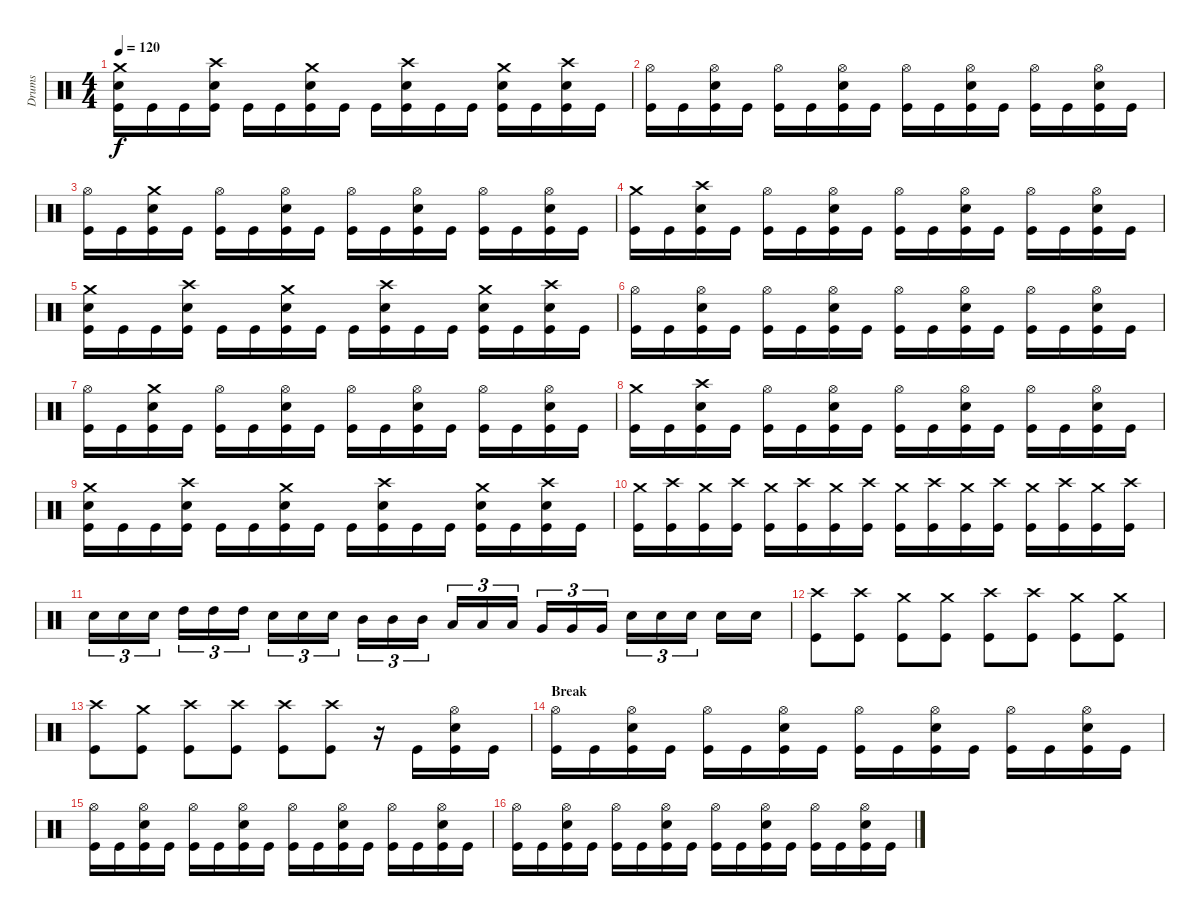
\track ("Drums" "Drums") {instrument percussion}
\staff {score}
\articulation defaults
\ts (4 4)
\tempo 120
\clef neutral
\ks c
("Crash medium (hit)" "Snare (hit) 2" "Kick (hit)").16{dy f} "Kick (hit)".16 "Kick (hit)".16 ("Crash high (hit)" "Snare (hit) 2" "Kick (hit)").16 "Kick (hit)".16 "Kick (hit)".16 ("Crash medium (hit)" "Snare (hit) 2" "Kick (hit)").16 "Kick (hit)".16 "Kick (hit)".16 ("Crash high (hit)" "Snare (hit) 2" "Kick (hit)").16 "Kick (hit)".16 "Kick (hit)".16 ("Crash medium (hit)" "Snare (hit) 2" "Kick (hit)").16 "Kick (hit)".16 ("Crash high (hit)" "Snare (hit) 2" "Kick (hit)").16 "Kick (hit)".16 |
("Hi-Hat (open)" "Kick (hit)").16 "Kick (hit)".16 ("Hi-Hat (open)" "Snare (hit) 2" "Kick (hit)").16 "Kick (hit)".16 ("Hi-Hat (open)" "Kick (hit)").16 "Kick (hit)".16 ("Hi-Hat (open)" "Snare (hit) 2" "Kick (hit)").16 "Kick (hit)".16 ("Hi-Hat (open)" "Kick (hit)").16 "Kick (hit)".16 ("Hi-Hat (open)" "Snare (hit) 2" "Kick (hit)").16 "Kick (hit)".16 ("Hi-Hat (open)" "Kick (hit)").16 "Kick (hit)".16 ("Hi-Hat (open)" "Snare (hit) 2" "Kick (hit)").16 "Kick (hit)".16 |
("Hi-Hat (open)" "Kick (hit)").16 "Kick (hit)".16 ("Crash medium (hit)" "Snare (hit) 2" "Kick (hit)").16 "Kick (hit)".16 ("Hi-Hat (open)" "Kick (hit)").16 "Kick (hit)".16 ("Hi-Hat (open)" "Snare (hit) 2" "Kick (hit)").16 "Kick (hit)".16 ("Hi-Hat (open)" "Kick (hit)").16 "Kick (hit)".16 ("Hi-Hat (open)" "Snare (hit) 2" "Kick (hit)").16 "Kick (hit)".16 ("Hi-Hat (open)" "Kick (hit)").16 "Kick (hit)".16 ("Hi-Hat (open)" "Snare (hit) 2" "Kick (hit)").16 "Kick (hit)".16 |
("Crash medium (hit)" "Kick (hit)").16 "Kick (hit)".16 ("Crash high (hit)" "Snare (hit) 2" "Kick (hit)").16 "Kick (hit)".16 ("Hi-Hat (open)" "Kick (hit)").16 "Kick (hit)".16 ("Hi-Hat (open)" "Snare (hit) 2" "Kick (hit)").16 "Kick (hit)".16 ("Hi-Hat (open)" "Kick (hit)").16 "Kick (hit)".16 ("Hi-Hat (open)" "Snare (hit) 2" "Kick (hit)").16 "Kick (hit)".16 ("Hi-Hat (open)" "Kick (hit)").16 "Kick (hit)".16 ("Hi-Hat (open)" "Snare (hit) 2" "Kick (hit)").16 "Kick (hit)".16 |
("Crash medium (hit)" "Snare (hit) 2" "Kick (hit)").16 "Kick (hit)".16 "Kick (hit)".16 ("Crash high (hit)" "Snare (hit) 2" "Kick (hit)").16 "Kick (hit)".16 "Kick (hit)".16 ("Crash medium (hit)" "Snare (hit) 2" "Kick (hit)").16 "Kick (hit)".16 "Kick (hit)".16 ("Crash high (hit)" "Snare (hit) 2" "Kick (hit)").16 "Kick (hit)".16 "Kick (hit)".16 ("Crash medium (hit)" "Snare (hit) 2" "Kick (hit)").16 "Kick (hit)".16 ("Crash high (hit)" "Snare (hit) 2" "Kick (hit)").16 "Kick (hit)".16 |
("Hi-Hat (open)" "Kick (hit)").16 "Kick (hit)".16 ("Hi-Hat (open)" "Snare (hit) 2" "Kick (hit)").16 "Kick (hit)".16 ("Hi-Hat (open)" "Kick (hit)").16 "Kick (hit)".16 ("Hi-Hat (open)" "Snare (hit) 2" "Kick (hit)").16 "Kick (hit)".16 ("Hi-Hat (open)" "Kick (hit)").16 "Kick (hit)".16 ("Hi-Hat (open)" "Snare (hit) 2" "Kick (hit)").16 "Kick (hit)".16 ("Hi-Hat (open)" "Kick (hit)").16 "Kick (hit)".16 ("Hi-Hat (open)" "Snare (hit) 2" "Kick (hit)").16 "Kick (hit)".16 |
("Hi-Hat (open)" "Kick (hit)").16 "Kick (hit)".16 ("Crash medium (hit)" "Snare (hit) 2" "Kick (hit)").16 "Kick (hit)".16 ("Hi-Hat (open)" "Kick (hit)").16 "Kick (hit)".16 ("Hi-Hat (open)" "Snare (hit) 2" "Kick (hit)").16 "Kick (hit)".16 ("Hi-Hat (open)" "Kick (hit)").16 "Kick (hit)".16 ("Hi-Hat (open)" "Snare (hit) 2" "Kick (hit)").16 "Kick (hit)".16 ("Hi-Hat (open)" "Kick (hit)").16 "Kick (hit)".16 ("Hi-Hat (open)" "Snare (hit) 2" "Kick (hit)").16 "Kick (hit)".16 |
("Crash medium (hit)" "Kick (hit)").16 "Kick (hit)".16 ("Crash high (hit)" "Snare (hit) 2" "Kick (hit)").16 "Kick (hit)".16 ("Hi-Hat (open)" "Kick (hit)").16 "Kick (hit)".16 ("Hi-Hat (open)" "Snare (hit) 2" "Kick (hit)").16 "Kick (hit)".16 ("Hi-Hat (open)" "Kick (hit)").16 "Kick (hit)".16 ("Hi-Hat (open)" "Snare (hit) 2" "Kick (hit)").16 "Kick (hit)".16 ("Hi-Hat (open)" "Kick (hit)").16 "Kick (hit)".16 ("Hi-Hat (open)" "Snare (hit) 2" "Kick (hit)").16 "Kick (hit)".16 |
("Crash medium (hit)" "Snare (hit) 2" "Kick (hit)").16 "Kick (hit)".16 "Kick (hit)".16 ("Crash high (hit)" "Snare (hit) 2" "Kick (hit)").16 "Kick (hit)".16 "Kick (hit)".16 ("Crash medium (hit)" "Snare (hit) 2" "Kick (hit)").16 "Kick (hit)".16 "Kick (hit)".16 ("Crash high (hit)" "Snare (hit) 2" "Kick (hit)").16 "Kick (hit)".16 "Kick (hit)".16 ("Crash medium (hit)" "Snare (hit) 2" "Kick (hit)").16 "Kick (hit)".16 ("Crash high (hit)" "Snare (hit) 2" "Kick (hit)").16 "Kick (hit)".16 |
("Crash medium (hit)" "Kick (hit)").16 ("Crash high (hit)" "Kick (hit)").16 ("Crash medium (hit)" "Kick (hit)").16 ("Crash high (hit)" "Kick (hit)").16 ("Crash medium (hit)" "Kick (hit)").16 ("Crash high (hit)" "Kick (hit)").16 ("Crash medium (hit)" "Kick (hit)").16 ("Crash high (hit)" "Kick (hit)").16 ("Crash medium (hit)" "Kick (hit)").16 ("Crash high (hit)" "Kick (hit)").16 ("Crash medium (hit)" "Kick (hit)").16 ("Crash high (hit)" "Kick (hit)").16 ("Crash medium (hit)" "Kick (hit)").16 ("Crash high (hit)" "Kick (hit)").16 ("Crash medium (hit)" "Kick (hit)").16 ("Crash high (hit)" "Kick (hit)").16 |
"Snare (hit) 2".16{tu (3 2)} "Snare (hit) 2".16{tu (3 2)} "Snare (hit) 2".16{tu (3 2)} "High Tom (hit)".16{tu (3 2)} "High Tom (hit)".16{tu (3 2)} "High Tom (hit)".16{tu (3 2)} "Snare (hit) 2".16{tu (3 2)} "Snare (hit) 2".16{tu (3 2)} "Snare (hit) 2".16{tu (3 2)} "Mid Tom (hit)".16{tu (3 2)} "Mid Tom (hit)".16{tu (3 2)} "Mid Tom (hit)".16{tu (3 2)} "Low Tom (hit)".16{tu (3 2)} "Low Tom (hit)".16{tu (3 2)} "Low Tom (hit)".16{tu (3 2)} "Very Low Tom (hit)".16{tu (3 2)} "Very Low Tom (hit)".16{tu (3 2)} "Very Low Tom (hit)".16{tu (3 2)} "Snare (hit) 2".16{tu (3 2)} "Snare (hit) 2".16{tu (3 2)} "Snare (hit) 2".16{tu (3 2)} "Snare (hit) 2".16 "Snare (hit) 2".16 |
("Crash high (hit)" "Kick (hit)").8 ("Crash high (hit)" "Kick (hit)").8 ("Crash medium (hit)" "Kick (hit)").8 ("Crash medium (hit)" "Kick (hit)").8 ("Crash high (hit)" "Kick (hit)").8 ("Crash high (hit)" "Kick (hit)").8 ("Crash medium (hit)" "Kick (hit)").8 ("Crash medium (hit)" "Kick (hit)").8 |
("Crash high (hit)" "Kick (hit)").8 ("Crash medium (hit)" "Kick (hit)").8 ("Crash high (hit)" "Kick (hit)").8 ("Crash high (hit)" "Kick (hit)").8 ("Crash high (hit)" "Kick (hit)").8 ("Crash high (hit)" "Kick (hit)").8 r.16 "Kick (hit)".16 ("Hi-Hat (open)" "Snare (hit) 2" "Kick (hit)").16 "Kick (hit)".16 |
\section ("" "Break")
("Hi-Hat (open)" "Kick (hit)").16 "Kick (hit)".16 ("Hi-Hat (open)" "Snare (hit) 2" "Kick (hit)").16 "Kick (hit)".16 ("Hi-Hat (open)" "Kick (hit)").16 "Kick (hit)".16 ("Hi-Hat (open)" "Snare (hit) 2" "Kick (hit)").16 "Kick (hit)".16 ("Hi-Hat (open)" "Kick (hit)").16 "Kick (hit)".16 ("Hi-Hat (open)" "Snare (hit) 2" "Kick (hit)").16 "Kick (hit)".16 ("Hi-Hat (open)" "Kick (hit)").16 "Kick (hit)".16 ("Hi-Hat (open)" "Snare (hit) 2" "Kick (hit)").16 "Kick (hit)".16 |
("Hi-Hat (open)" "Kick (hit)").16 "Kick (hit)".16 ("Hi-Hat (open)" "Snare (hit) 2" "Kick (hit)").16 "Kick (hit)".16 ("Hi-Hat (open)" "Kick (hit)").16 "Kick (hit)".16 ("Hi-Hat (open)" "Snare (hit) 2" "Kick (hit)").16 "Kick (hit)".16 ("Hi-Hat (open)" "Kick (hit)").16 "Kick (hit)".16 ("Hi-Hat (open)" "Snare (hit) 2" "Kick (hit)").16 "Kick (hit)".16 ("Hi-Hat (open)" "Kick (hit)").16 "Kick (hit)".16 ("Hi-Hat (open)" "Snare (hit) 2" "Kick (hit)").16 "Kick (hit)".16 |
("Hi-Hat (open)" "Kick (hit)").16 "Kick (hit)".16 ("Hi-Hat (open)" "Snare (hit) 2" "Kick (hit)").16 "Kick (hit)".16 ("Hi-Hat (open)" "Kick (hit)").16 "Kick (hit)".16 ("Hi-Hat (open)" "Snare (hit) 2" "Kick (hit)").16 "Kick (hit)".16 ("Hi-Hat (open)" "Kick (hit)").16 "Kick (hit)".16 ("Hi-Hat (open)" "Snare (hit) 2" "Kick (hit)").16 "Kick (hit)".16 ("Hi-Hat (open)" "Kick (hit)").16 "Kick (hit)".16 ("Hi-Hat (open)" "Snare (hit) 2" "Kick (hit)").16 "Kick (hit)".16
